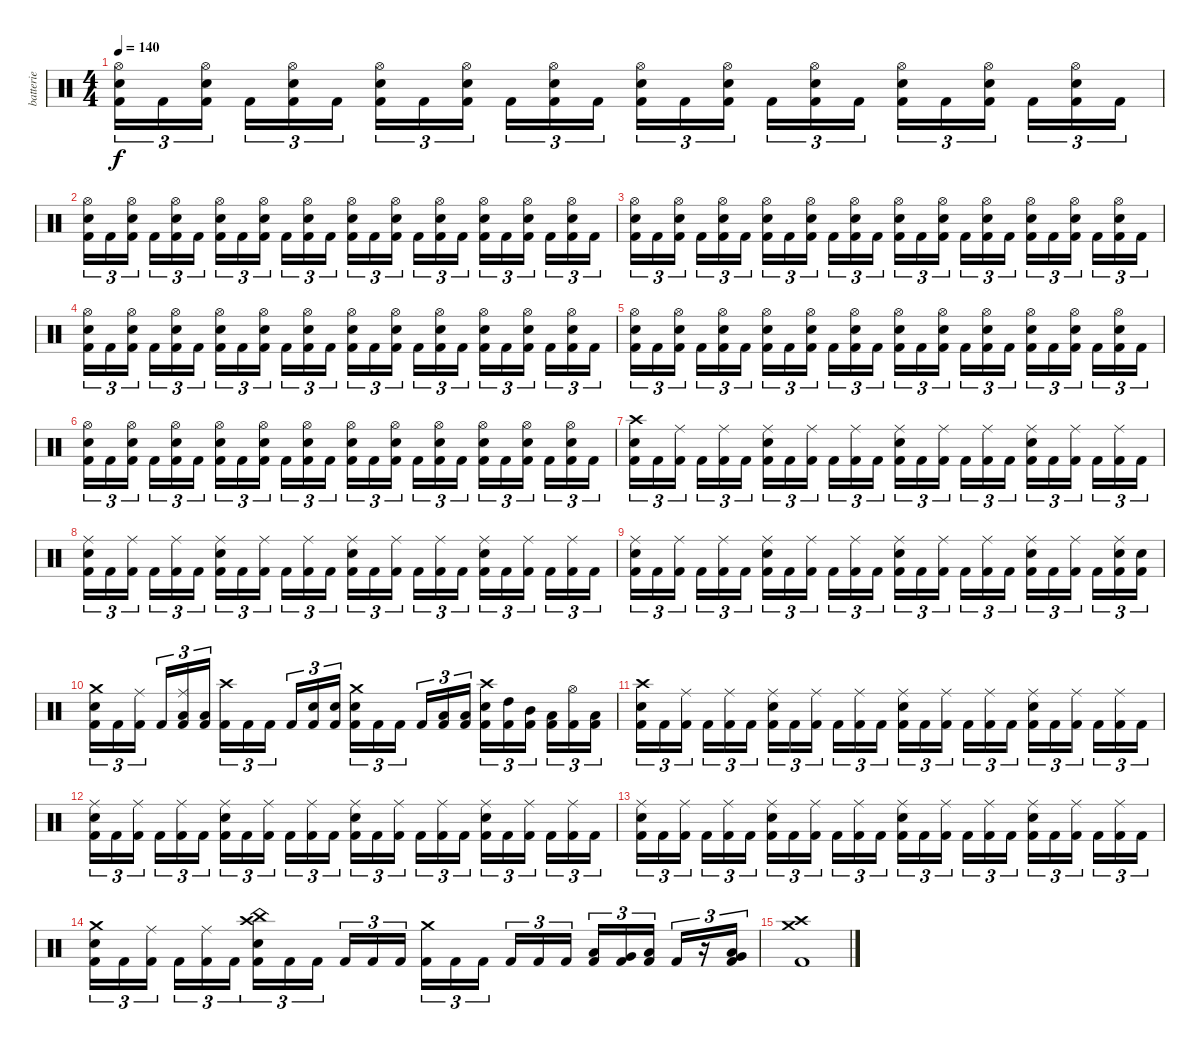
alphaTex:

\track ("batterie" "batterie") {instrument percussion}
\staff {score}
\articulation defaults
\ts (4 4)
\tempo 140
\clef neutral
\ks c
("Hi-Hat (open)" "Electric Snare (hit)" "Kick (hit) 2").16{tu (3 2) dy f} "Kick (hit) 2".16{tu (3 2)} ("Hi-Hat (open)" "Electric Snare (hit)" "Kick (hit) 2").16{tu (3 2)} "Kick (hit) 2".16{tu (3 2)} ("Hi-Hat (open)" "Electric Snare (hit)" "Kick (hit) 2").16{tu (3 2)} "Kick (hit) 2".16{tu (3 2)} ("Hi-Hat (open)" "Electric Snare (hit)" "Kick (hit) 2").16{tu (3 2)} "Kick (hit) 2".16{tu (3 2)} ("Hi-Hat (open)" "Electric Snare (hit)" "Kick (hit) 2").16{tu (3 2)} "Kick (hit) 2".16{tu (3 2)} ("Hi-Hat (open)" "Electric Snare (hit)" "Kick (hit) 2").16{tu (3 2)} "Kick (hit) 2".16{tu (3 2)} ("Hi-Hat (open)" "Electric Snare (hit)" "Kick (hit) 2").16{tu (3 2)} "Kick (hit) 2".16{tu (3 2)} ("Hi-Hat (open)" "Electric Snare (hit)" "Kick (hit) 2").16{tu (3 2)} "Kick (hit) 2".16{tu (3 2)} ("Hi-Hat (open)" "Electric Snare (hit)" "Kick (hit) 2").16{tu (3 2)} "Kick (hit) 2".16{tu (3 2)} ("Hi-Hat (open)" "Electric Snare (hit)" "Kick (hit) 2").16{tu (3 2)} "Kick (hit) 2".16{tu (3 2)} ("Hi-Hat (open)" "Electric Snare (hit)" "Kick (hit) 2").16{tu (3 2)} "Kick (hit) 2".16{tu (3 2)} ("Hi-Hat (open)" "Electric Snare (hit)" "Kick (hit) 2").16{tu (3 2)} "Kick (hit) 2".16{tu (3 2)} |
("Hi-Hat (open)" "Electric Snare (hit)" "Kick (hit) 2").16{tu (3 2)} "Kick (hit) 2".16{tu (3 2)} ("Hi-Hat (open)" "Electric Snare (hit)" "Kick (hit) 2").16{tu (3 2)} "Kick (hit) 2".16{tu (3 2)} ("Hi-Hat (open)" "Electric Snare (hit)" "Kick (hit) 2").16{tu (3 2)} "Kick (hit) 2".16{tu (3 2)} ("Hi-Hat (open)" "Electric Snare (hit)" "Kick (hit) 2").16{tu (3 2)} "Kick (hit) 2".16{tu (3 2)} ("Hi-Hat (open)" "Electric Snare (hit)" "Kick (hit) 2").16{tu (3 2)} "Kick (hit) 2".16{tu (3 2)} ("Hi-Hat (open)" "Electric Snare (hit)" "Kick (hit) 2").16{tu (3 2)} "Kick (hit) 2".16{tu (3 2)} ("Hi-Hat (open)" "Electric Snare (hit)" "Kick (hit) 2").16{tu (3 2)} "Kick (hit) 2".16{tu (3 2)} ("Hi-Hat (open)" "Electric Snare (hit)" "Kick (hit) 2").16{tu (3 2)} "Kick (hit) 2".16{tu (3 2)} ("Hi-Hat (open)" "Electric Snare (hit)" "Kick (hit) 2").16{tu (3 2)} "Kick (hit) 2".16{tu (3 2)} ("Hi-Hat (open)" "Electric Snare (hit)" "Kick (hit) 2").16{tu (3 2)} "Kick (hit) 2".16{tu (3 2)} ("Hi-Hat (open)" "Electric Snare (hit)" "Kick (hit) 2").16{tu (3 2)} "Kick (hit) 2".16{tu (3 2)} ("Hi-Hat (open)" "Electric Snare (hit)" "Kick (hit) 2").16{tu (3 2)} "Kick (hit) 2".16{tu (3 2)} |
("Hi-Hat (open)" "Electric Snare (hit)" "Kick (hit) 2").16{tu (3 2)} "Kick (hit) 2".16{tu (3 2)} ("Hi-Hat (open)" "Electric Snare (hit)" "Kick (hit) 2").16{tu (3 2)} "Kick (hit) 2".16{tu (3 2)} ("Hi-Hat (open)" "Electric Snare (hit)" "Kick (hit) 2").16{tu (3 2)} "Kick (hit) 2".16{tu (3 2)} ("Hi-Hat (open)" "Electric Snare (hit)" "Kick (hit) 2").16{tu (3 2)} "Kick (hit) 2".16{tu (3 2)} ("Hi-Hat (open)" "Electric Snare (hit)" "Kick (hit) 2").16{tu (3 2)} "Kick (hit) 2".16{tu (3 2)} ("Hi-Hat (open)" "Electric Snare (hit)" "Kick (hit) 2").16{tu (3 2)} "Kick (hit) 2".16{tu (3 2)} ("Hi-Hat (open)" "Electric Snare (hit)" "Kick (hit) 2").16{tu (3 2)} "Kick (hit) 2".16{tu (3 2)} ("Hi-Hat (open)" "Electric Snare (hit)" "Kick (hit) 2").16{tu (3 2)} "Kick (hit) 2".16{tu (3 2)} ("Hi-Hat (open)" "Electric Snare (hit)" "Kick (hit) 2").16{tu (3 2)} "Kick (hit) 2".16{tu (3 2)} ("Hi-Hat (open)" "Electric Snare (hit)" "Kick (hit) 2").16{tu (3 2)} "Kick (hit) 2".16{tu (3 2)} ("Hi-Hat (open)" "Electric Snare (hit)" "Kick (hit) 2").16{tu (3 2)} "Kick (hit) 2".16{tu (3 2)} ("Hi-Hat (open)" "Electric Snare (hit)" "Kick (hit) 2").16{tu (3 2)} "Kick (hit) 2".16{tu (3 2)} |
("Hi-Hat (open)" "Electric Snare (hit)" "Kick (hit) 2").16{tu (3 2)} "Kick (hit) 2".16{tu (3 2)} ("Hi-Hat (open)" "Electric Snare (hit)" "Kick (hit) 2").16{tu (3 2)} "Kick (hit) 2".16{tu (3 2)} ("Hi-Hat (open)" "Electric Snare (hit)" "Kick (hit) 2").16{tu (3 2)} "Kick (hit) 2".16{tu (3 2)} ("Hi-Hat (open)" "Electric Snare (hit)" "Kick (hit) 2").16{tu (3 2)} "Kick (hit) 2".16{tu (3 2)} ("Hi-Hat (open)" "Electric Snare (hit)" "Kick (hit) 2").16{tu (3 2)} "Kick (hit) 2".16{tu (3 2)} ("Hi-Hat (open)" "Electric Snare (hit)" "Kick (hit) 2").16{tu (3 2)} "Kick (hit) 2".16{tu (3 2)} ("Hi-Hat (open)" "Electric Snare (hit)" "Kick (hit) 2").16{tu (3 2)} "Kick (hit) 2".16{tu (3 2)} ("Hi-Hat (open)" "Electric Snare (hit)" "Kick (hit) 2").16{tu (3 2)} "Kick (hit) 2".16{tu (3 2)} ("Hi-Hat (open)" "Electric Snare (hit)" "Kick (hit) 2").16{tu (3 2)} "Kick (hit) 2".16{tu (3 2)} ("Hi-Hat (open)" "Electric Snare (hit)" "Kick (hit) 2").16{tu (3 2)} "Kick (hit) 2".16{tu (3 2)} ("Hi-Hat (open)" "Electric Snare (hit)" "Kick (hit) 2").16{tu (3 2)} "Kick (hit) 2".16{tu (3 2)} ("Hi-Hat (open)" "Electric Snare (hit)" "Kick (hit) 2").16{tu (3 2)} "Kick (hit) 2".16{tu (3 2)} |
("Hi-Hat (open)" "Electric Snare (hit)" "Kick (hit) 2").16{tu (3 2)} "Kick (hit) 2".16{tu (3 2)} ("Hi-Hat (open)" "Electric Snare (hit)" "Kick (hit) 2").16{tu (3 2)} "Kick (hit) 2".16{tu (3 2)} ("Hi-Hat (open)" "Electric Snare (hit)" "Kick (hit) 2").16{tu (3 2)} "Kick (hit) 2".16{tu (3 2)} ("Hi-Hat (open)" "Electric Snare (hit)" "Kick (hit) 2").16{tu (3 2)} "Kick (hit) 2".16{tu (3 2)} ("Hi-Hat (open)" "Electric Snare (hit)" "Kick (hit) 2").16{tu (3 2)} "Kick (hit) 2".16{tu (3 2)} ("Hi-Hat (open)" "Electric Snare (hit)" "Kick (hit) 2").16{tu (3 2)} "Kick (hit) 2".16{tu (3 2)} ("Hi-Hat (open)" "Electric Snare (hit)" "Kick (hit) 2").16{tu (3 2)} "Kick (hit) 2".16{tu (3 2)} ("Hi-Hat (open)" "Electric Snare (hit)" "Kick (hit) 2").16{tu (3 2)} "Kick (hit) 2".16{tu (3 2)} ("Hi-Hat (open)" "Electric Snare (hit)" "Kick (hit) 2").16{tu (3 2)} "Kick (hit) 2".16{tu (3 2)} ("Hi-Hat (open)" "Electric Snare (hit)" "Kick (hit) 2").16{tu (3 2)} "Kick (hit) 2".16{tu (3 2)} ("Hi-Hat (open)" "Electric Snare (hit)" "Kick (hit) 2").16{tu (3 2)} "Kick (hit) 2".16{tu (3 2)} ("Hi-Hat (open)" "Electric Snare (hit)" "Kick (hit) 2").16{tu (3 2)} "Kick (hit) 2".16{tu (3 2)} |
("Hi-Hat (open)" "Electric Snare (hit)" "Kick (hit) 2").16{tu (3 2)} "Kick (hit) 2".16{tu (3 2)} ("Hi-Hat (open)" "Electric Snare (hit)" "Kick (hit) 2").16{tu (3 2)} "Kick (hit) 2".16{tu (3 2)} ("Hi-Hat (open)" "Electric Snare (hit)" "Kick (hit) 2").16{tu (3 2)} "Kick (hit) 2".16{tu (3 2)} ("Hi-Hat (open)" "Electric Snare (hit)" "Kick (hit) 2").16{tu (3 2)} "Kick (hit) 2".16{tu (3 2)} ("Hi-Hat (open)" "Electric Snare (hit)" "Kick (hit) 2").16{tu (3 2)} "Kick (hit) 2".16{tu (3 2)} ("Hi-Hat (open)" "Electric Snare (hit)" "Kick (hit) 2").16{tu (3 2)} "Kick (hit) 2".16{tu (3 2)} ("Hi-Hat (open)" "Electric Snare (hit)" "Kick (hit) 2").16{tu (3 2)} "Kick (hit) 2".16{tu (3 2)} ("Hi-Hat (open)" "Electric Snare (hit)" "Kick (hit) 2").16{tu (3 2)} "Kick (hit) 2".16{tu (3 2)} ("Hi-Hat (open)" "Electric Snare (hit)" "Kick (hit) 2").16{tu (3 2)} "Kick (hit) 2".16{tu (3 2)} ("Hi-Hat (open)" "Electric Snare (hit)" "Kick (hit) 2").16{tu (3 2)} "Kick (hit) 2".16{tu (3 2)} ("Hi-Hat (open)" "Electric Snare (hit)" "Kick (hit) 2").16{tu (3 2)} "Kick (hit) 2".16{tu (3 2)} ("Hi-Hat (open)" "Electric Snare (hit)" "Kick (hit) 2").16{tu (3 2)} "Kick (hit) 2".16{tu (3 2)} |
("Crash high (hit)" "Electric Snare (hit)" "Kick (hit) 2").16{tu (3 2)} "Kick (hit) 2".16{tu (3 2)} ("Ride (middle)" "Kick (hit) 2").16{tu (3 2)} "Kick (hit) 2".16{tu (3 2)} ("Ride (middle)" "Kick (hit) 2").16{tu (3 2)} "Kick (hit) 2".16{tu (3 2)} ("Ride (middle)" "Electric Snare (hit)" "Kick (hit) 2").16{tu (3 2)} "Kick (hit) 2".16{tu (3 2)} ("Ride (middle)" "Kick (hit) 2").16{tu (3 2)} "Kick (hit) 2".16{tu (3 2)} ("Ride (middle)" "Kick (hit) 2").16{tu (3 2)} "Kick (hit) 2".16{tu (3 2)} ("Ride (middle)" "Electric Snare (hit)" "Kick (hit) 2").16{tu (3 2)} "Kick (hit) 2".16{tu (3 2)} ("Ride (middle)" "Kick (hit) 2").16{tu (3 2)} "Kick (hit) 2".16{tu (3 2)} ("Ride (middle)" "Kick (hit) 2").16{tu (3 2)} "Kick (hit) 2".16{tu (3 2)} ("Ride (middle)" "Electric Snare (hit)" "Kick (hit) 2").16{tu (3 2)} "Kick (hit) 2".16{tu (3 2)} ("Ride (middle)" "Kick (hit) 2").16{tu (3 2)} "Kick (hit) 2".16{tu (3 2)} ("Ride (middle)" "Kick (hit) 2").16{tu (3 2)} "Kick (hit) 2".16{tu (3 2)} |
("Ride (middle)" "Electric Snare (hit)" "Kick (hit) 2").16{tu (3 2)} "Kick (hit) 2".16{tu (3 2)} ("Ride (middle)" "Kick (hit) 2").16{tu (3 2)} "Kick (hit) 2".16{tu (3 2)} ("Ride (middle)" "Kick (hit) 2").16{tu (3 2)} "Kick (hit) 2".16{tu (3 2)} ("Ride (middle)" "Electric Snare (hit)" "Kick (hit) 2").16{tu (3 2)} "Kick (hit) 2".16{tu (3 2)} ("Ride (middle)" "Kick (hit) 2").16{tu (3 2)} "Kick (hit) 2".16{tu (3 2)} ("Ride (middle)" "Kick (hit) 2").16{tu (3 2)} "Kick (hit) 2".16{tu (3 2)} ("Ride (middle)" "Electric Snare (hit)" "Kick (hit) 2").16{tu (3 2)} "Kick (hit) 2".16{tu (3 2)} ("Ride (middle)" "Kick (hit) 2").16{tu (3 2)} "Kick (hit) 2".16{tu (3 2)} ("Ride (middle)" "Kick (hit) 2").16{tu (3 2)} "Kick (hit) 2".16{tu (3 2)} ("Ride (middle)" "Electric Snare (hit)" "Kick (hit) 2").16{tu (3 2)} "Kick (hit) 2".16{tu (3 2)} ("Ride (middle)" "Kick (hit) 2").16{tu (3 2)} "Kick (hit) 2".16{tu (3 2)} ("Ride (middle)" "Kick (hit) 2").16{tu (3 2)} "Kick (hit) 2".16{tu (3 2)} |
("Ride (middle)" "Electric Snare (hit)" "Kick (hit) 2").16{tu (3 2)} "Kick (hit) 2".16{tu (3 2)} ("Ride (middle)" "Kick (hit) 2").16{tu (3 2)} "Kick (hit) 2".16{tu (3 2)} ("Ride (middle)" "Kick (hit) 2").16{tu (3 2)} "Kick (hit) 2".16{tu (3 2)} ("Ride (middle)" "Electric Snare (hit)" "Kick (hit) 2").16{tu (3 2)} "Kick (hit) 2".16{tu (3 2)} ("Ride (middle)" "Kick (hit) 2").16{tu (3 2)} "Kick (hit) 2".16{tu (3 2)} ("Ride (middle)" "Kick (hit) 2").16{tu (3 2)} "Kick (hit) 2".16{tu (3 2)} ("Ride (middle)" "Electric Snare (hit)" "Kick (hit) 2").16{tu (3 2)} "Kick (hit) 2".16{tu (3 2)} ("Ride (middle)" "Kick (hit) 2").16{tu (3 2)} "Kick (hit) 2".16{tu (3 2)} ("Ride (middle)" "Kick (hit) 2").16{tu (3 2)} "Kick (hit) 2".16{tu (3 2)} ("Ride (middle)" "Electric Snare (hit)" "Kick (hit) 2").16{tu (3 2)} "Kick (hit) 2".16{tu (3 2)} ("Ride (middle)" "Kick (hit) 2").16{tu (3 2)} "Kick (hit) 2".16{tu (3 2)} ("Ride (middle)" "Electric Snare (hit)" "Kick (hit) 2").16{tu (3 2)} ("Electric Snare (hit)" "Kick (hit) 2").16{tu (3 2)} |
("Crash medium (hit)" "Electric Snare (hit)" "Kick (hit) 2").16{tu (3 2)} "Kick (hit) 2".16{tu (3 2)} ("Ride (middle)" "Kick (hit) 2").16{tu (3 2)} "Kick (hit) 2".16{tu (3 2)} ("Ride (middle)" "Low Tom (hit)" "Kick (hit) 2").16{tu (3 2)} ("Low Tom (hit)" "Kick (hit) 2").16{tu (3 2)} ("Crash high (hit)" "Kick (hit) 2").16{tu (3 2)} "Kick (hit) 2".16{tu (3 2)} "Kick (hit) 2".16{tu (3 2)} "Kick (hit) 2".16{tu (3 2)} ("Electric Snare (hit)" "Kick (hit) 2").16{tu (3 2)} ("Electric Snare (hit)" "Kick (hit) 2").16{tu (3 2)} ("Crash medium (hit)" "Electric Snare (hit)" "Kick (hit) 2").16{tu (3 2)} "Kick (hit) 2".16{tu (3 2)} "Kick (hit) 2".16{tu (3 2)} "Kick (hit) 2".16{tu (3 2)} ("Low Tom (hit)" "Kick (hit) 2").16{tu (3 2)} ("Low Tom (hit)" "Kick (hit) 2").16{tu (3 2)} ("Crash high (hit)" "Electric Snare (hit)" "Kick (hit) 2").16{tu (3 2)} ("High Tom (hit)" "Kick (hit) 2").16{tu (3 2)} ("Mid Tom (hit)" "Kick (hit) 2").16{tu (3 2)} ("Low Tom (hit)" "Kick (hit) 2").16{tu (3 2)} ("Hi-Hat (open)" "Kick (hit) 2").16{tu (3 2)} ("Low Floor Tom (hit)" "Kick (hit) 2").16{tu (3 2)} |
("Crash high (hit)" "Electric Snare (hit)" "Kick (hit) 2").16{tu (3 2)} "Kick (hit) 2".16{tu (3 2)} ("Ride (middle)" "Kick (hit) 2").16{tu (3 2)} "Kick (hit) 2".16{tu (3 2)} ("Ride (middle)" "Kick (hit) 2").16{tu (3 2)} "Kick (hit) 2".16{tu (3 2)} ("Ride (middle)" "Electric Snare (hit)" "Kick (hit) 2").16{tu (3 2)} "Kick (hit) 2".16{tu (3 2)} ("Ride (middle)" "Kick (hit) 2").16{tu (3 2)} "Kick (hit) 2".16{tu (3 2)} ("Ride (middle)" "Kick (hit) 2").16{tu (3 2)} "Kick (hit) 2".16{tu (3 2)} ("Ride (middle)" "Electric Snare (hit)" "Kick (hit) 2").16{tu (3 2)} "Kick (hit) 2".16{tu (3 2)} ("Ride (middle)" "Kick (hit) 2").16{tu (3 2)} "Kick (hit) 2".16{tu (3 2)} ("Ride (middle)" "Kick (hit) 2").16{tu (3 2)} "Kick (hit) 2".16{tu (3 2)} ("Ride (middle)" "Electric Snare (hit)" "Kick (hit) 2").16{tu (3 2)} "Kick (hit) 2".16{tu (3 2)} ("Ride (middle)" "Kick (hit) 2").16{tu (3 2)} "Kick (hit) 2".16{tu (3 2)} ("Ride (middle)" "Kick (hit) 2").16{tu (3 2)} "Kick (hit) 2".16{tu (3 2)} |
("Ride (middle)" "Electric Snare (hit)" "Kick (hit) 2").16{tu (3 2)} "Kick (hit) 2".16{tu (3 2)} ("Ride (middle)" "Kick (hit) 2").16{tu (3 2)} "Kick (hit) 2".16{tu (3 2)} ("Ride (middle)" "Kick (hit) 2").16{tu (3 2)} "Kick (hit) 2".16{tu (3 2)} ("Ride (middle)" "Electric Snare (hit)" "Kick (hit) 2").16{tu (3 2)} "Kick (hit) 2".16{tu (3 2)} ("Ride (middle)" "Kick (hit) 2").16{tu (3 2)} "Kick (hit) 2".16{tu (3 2)} ("Ride (middle)" "Kick (hit) 2").16{tu (3 2)} "Kick (hit) 2".16{tu (3 2)} ("Ride (middle)" "Electric Snare (hit)" "Kick (hit) 2").16{tu (3 2)} "Kick (hit) 2".16{tu (3 2)} ("Ride (middle)" "Kick (hit) 2").16{tu (3 2)} "Kick (hit) 2".16{tu (3 2)} ("Ride (middle)" "Kick (hit) 2").16{tu (3 2)} "Kick (hit) 2".16{tu (3 2)} ("Ride (middle)" "Electric Snare (hit)" "Kick (hit) 2").16{tu (3 2)} "Kick (hit) 2".16{tu (3 2)} ("Ride (middle)" "Kick (hit) 2").16{tu (3 2)} "Kick (hit) 2".16{tu (3 2)} ("Ride (middle)" "Kick (hit) 2").16{tu (3 2)} "Kick (hit) 2".16{tu (3 2)} |
("Ride (middle)" "Electric Snare (hit)" "Kick (hit) 2").16{tu (3 2)} "Kick (hit) 2".16{tu (3 2)} ("Ride (middle)" "Kick (hit) 2").16{tu (3 2)} "Kick (hit) 2".16{tu (3 2)} ("Ride (middle)" "Kick (hit) 2").16{tu (3 2)} "Kick (hit) 2".16{tu (3 2)} ("Ride (middle)" "Electric Snare (hit)" "Kick (hit) 2").16{tu (3 2)} "Kick (hit) 2".16{tu (3 2)} ("Ride (middle)" "Kick (hit) 2").16{tu (3 2)} "Kick (hit) 2".16{tu (3 2)} ("Ride (middle)" "Kick (hit) 2").16{tu (3 2)} "Kick (hit) 2".16{tu (3 2)} ("Ride (middle)" "Electric Snare (hit)" "Kick (hit) 2").16{tu (3 2)} "Kick (hit) 2".16{tu (3 2)} ("Ride (middle)" "Kick (hit) 2").16{tu (3 2)} "Kick (hit) 2".16{tu (3 2)} ("Ride (middle)" "Kick (hit) 2").16{tu (3 2)} "Kick (hit) 2".16{tu (3 2)} ("Ride (middle)" "Electric Snare (hit)" "Kick (hit) 2").16{tu (3 2)} "Kick (hit) 2".16{tu (3 2)} ("Ride (middle)" "Kick (hit) 2").16{tu (3 2)} "Kick (hit) 2".16{tu (3 2)} ("Ride (middle)" "Kick (hit) 2").16{tu (3 2)} "Kick (hit) 2".16{tu (3 2)} |
("Crash medium (hit)" "Electric Snare (hit)" "Kick (hit) 2").16{tu (3 2)} "Kick (hit) 2".16{tu (3 2)} ("Ride (middle)" "Kick (hit) 2").16{tu (3 2)} "Kick (hit) 2".16{tu (3 2)} ("Ride (middle)" "Kick (hit) 2").16{tu (3 2)} "Kick (hit) 2".16{tu (3 2)} ("China (hit)" "Crash high (hit)" "Electric Snare (hit)" "Kick (hit) 2").16{tu (3 2)} "Kick (hit) 2".16{tu (3 2)} "Kick (hit) 2".16{tu (3 2)} "Kick (hit) 2".16{tu (3 2)} "Kick (hit) 2".16{tu (3 2)} "Kick (hit) 2".16{tu (3 2)} ("Crash medium (hit)" "Kick (hit) 2").16{tu (3 2)} "Kick (hit) 2".16{tu (3 2)} "Kick (hit) 2".16{tu (3 2)} "Kick (hit) 2".16{tu (3 2)} "Kick (hit) 2".16{tu (3 2)} "Kick (hit) 2".16{tu (3 2)} ("Low Tom (hit)" "Kick (hit) 2").16{tu (3 2)} ("Very Low Tom (hit)" "Kick (hit) 2").16{tu (3 2)} ("Low Tom (hit)" "Kick (hit) 2").16{tu (3 2)} "Kick (hit) 2".16{tu (3 2)} r.16{tu (3 2)} ("Very Low Tom (hit)" "Low Tom (hit)" "Kick (hit) 2").16{tu (3 2)} |
("Crash medium (hit)" "Crash high (hit)" "Kick (hit) 2").1
